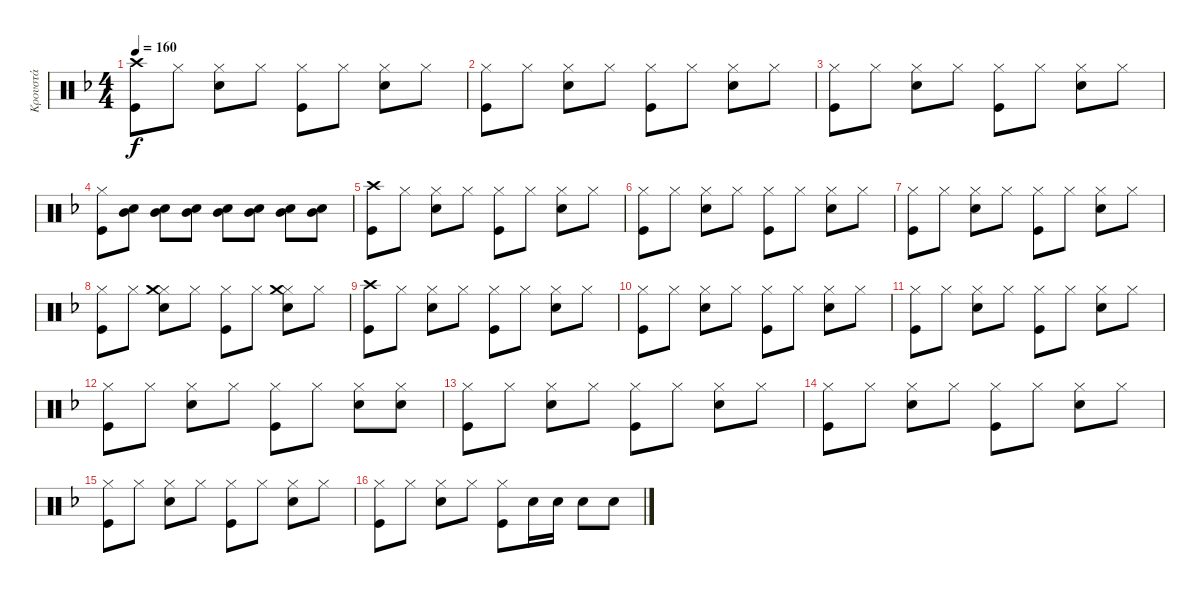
\track ("Κρουστά" "Κρουστά") {instrument percussion}
\staff {score}
\articulation defaults
\ts (4 4)
\tempo 160
\clef neutral
\ks dminor
("Crash high (hit)" "Kick (hit)").8{dy f} "Hi-Hat (closed)".8 ("Hi-Hat (closed)" "Snare (hit) 2").8 "Hi-Hat (closed)".8 ("Hi-Hat (closed)" "Kick (hit)").8 "Hi-Hat (closed)".8 ("Hi-Hat (closed)" "Snare (hit) 2").8 "Hi-Hat (closed)".8 |
("Hi-Hat (closed)" "Kick (hit)").8 "Hi-Hat (closed)".8 ("Hi-Hat (closed)" "Snare (hit) 2").8 "Hi-Hat (closed)".8 ("Hi-Hat (closed)" "Kick (hit)").8 "Hi-Hat (closed)".8 ("Hi-Hat (closed)" "Snare (hit) 2").8 "Hi-Hat (closed)".8 |
("Hi-Hat (closed)" "Kick (hit)").8 "Hi-Hat (closed)".8 ("Hi-Hat (closed)" "Snare (hit) 2").8 "Hi-Hat (closed)".8 ("Hi-Hat (closed)" "Kick (hit)").8 "Hi-Hat (closed)".8 ("Hi-Hat (closed)" "Snare (hit) 2").8 "Hi-Hat (closed)".8 |
("Hi-Hat (closed)" "Kick (hit)").8 ("Mid Tom (hit)" "Snare (hit) 2").8 ("Mid Tom (hit)" "Snare (hit) 2").8 ("Mid Tom (hit)" "Snare (hit) 2").8 ("Mid Tom (hit)" "Snare (hit) 2").8 ("Mid Tom (hit)" "Snare (hit) 2").8 ("Mid Tom (hit)" "Snare (hit) 2").8 ("Mid Tom (hit)" "Snare (hit) 2").8 |
("Crash high (hit)" "Kick (hit)").8 "Hi-Hat (closed)".8 ("Hi-Hat (closed)" "Snare (hit) 2").8 "Hi-Hat (closed)".8 ("Hi-Hat (closed)" "Kick (hit)").8 "Hi-Hat (closed)".8 ("Hi-Hat (closed)" "Snare (hit) 2").8 "Hi-Hat (closed)".8 |
("Hi-Hat (closed)" "Kick (hit)").8 "Hi-Hat (closed)".8 ("Hi-Hat (closed)" "Snare (hit) 2").8 "Hi-Hat (closed)".8 ("Hi-Hat (closed)" "Kick (hit)").8 "Hi-Hat (closed)".8 ("Hi-Hat (closed)" "Snare (hit) 2").8 "Hi-Hat (closed)".8 |
("Hi-Hat (closed)" "Kick (hit)").8 "Hi-Hat (closed)".8 ("Hi-Hat (closed)" "Snare (hit) 2").8 "Hi-Hat (closed)".8 ("Hi-Hat (closed)" "Kick (hit)").8 "Hi-Hat (closed)".8 ("Hi-Hat (closed)" "Snare (hit) 2").8 "Hi-Hat (closed)".8 |
("Hi-Hat (closed)" "Kick (hit)").8 "Hi-Hat (closed)".8 ("Hi-Hat (closed)" "Snare (hit) 2" "Crash medium (hit)").8 "Hi-Hat (closed)".8 ("Hi-Hat (closed)" "Kick (hit)").8 "Hi-Hat (closed)".8 ("Hi-Hat (closed)" "Snare (hit) 2" "Crash medium (hit)").8 "Hi-Hat (closed)".8 |
("Crash high (hit)" "Kick (hit)").8 "Hi-Hat (closed)".8 ("Hi-Hat (closed)" "Snare (hit) 2").8 "Hi-Hat (closed)".8 ("Hi-Hat (closed)" "Kick (hit)").8 "Hi-Hat (closed)".8 ("Hi-Hat (closed)" "Snare (hit) 2").8 "Hi-Hat (closed)".8 |
("Hi-Hat (closed)" "Kick (hit)").8 "Hi-Hat (closed)".8 ("Hi-Hat (closed)" "Snare (hit) 2").8 "Hi-Hat (closed)".8 ("Hi-Hat (closed)" "Kick (hit)").8 "Hi-Hat (closed)".8 ("Hi-Hat (closed)" "Snare (hit) 2").8 "Hi-Hat (closed)".8 |
("Hi-Hat (closed)" "Kick (hit)").8 "Hi-Hat (closed)".8 ("Hi-Hat (closed)" "Snare (hit) 2").8 "Hi-Hat (closed)".8 ("Hi-Hat (closed)" "Kick (hit)").8 "Hi-Hat (closed)".8 ("Hi-Hat (closed)" "Snare (hit) 2").8 "Hi-Hat (closed)".8 |
("Hi-Hat (closed)" "Kick (hit)").8 "Hi-Hat (closed)".8 ("Hi-Hat (closed)" "Snare (hit) 2").8 "Hi-Hat (closed)".8 ("Hi-Hat (closed)" "Kick (hit)").8 "Hi-Hat (closed)".8 ("Hi-Hat (closed)" "Snare (hit) 2").8 ("Hi-Hat (closed)" "Snare (hit) 2").8 |
("Hi-Hat (closed)" "Kick (hit)").8 "Hi-Hat (closed)".8 ("Hi-Hat (closed)" "Snare (hit) 2").8 "Hi-Hat (closed)".8 ("Hi-Hat (closed)" "Kick (hit)").8 "Hi-Hat (closed)".8 ("Hi-Hat (closed)" "Snare (hit) 2").8 "Hi-Hat (closed)".8 |
("Hi-Hat (closed)" "Kick (hit)").8 "Hi-Hat (closed)".8 ("Hi-Hat (closed)" "Snare (hit) 2").8 "Hi-Hat (closed)".8 ("Hi-Hat (closed)" "Kick (hit)").8 "Hi-Hat (closed)".8 ("Hi-Hat (closed)" "Snare (hit) 2").8 "Hi-Hat (closed)".8 |
("Hi-Hat (closed)" "Kick (hit)").8 "Hi-Hat (closed)".8 ("Hi-Hat (closed)" "Snare (hit) 2").8 "Hi-Hat (closed)".8 ("Hi-Hat (closed)" "Kick (hit)").8 "Hi-Hat (closed)".8 ("Hi-Hat (closed)" "Snare (hit) 2").8 "Hi-Hat (closed)".8 |
("Hi-Hat (closed)" "Kick (hit)").8 "Hi-Hat (closed)".8 ("Hi-Hat (closed)" "Snare (hit) 2").8 "Hi-Hat (closed)".8 ("Hi-Hat (closed)" "Kick (hit)").8 "Snare (hit) 2".16 "Snare (hit) 2".16 "Snare (hit) 2".8 "Snare (hit) 2".8
